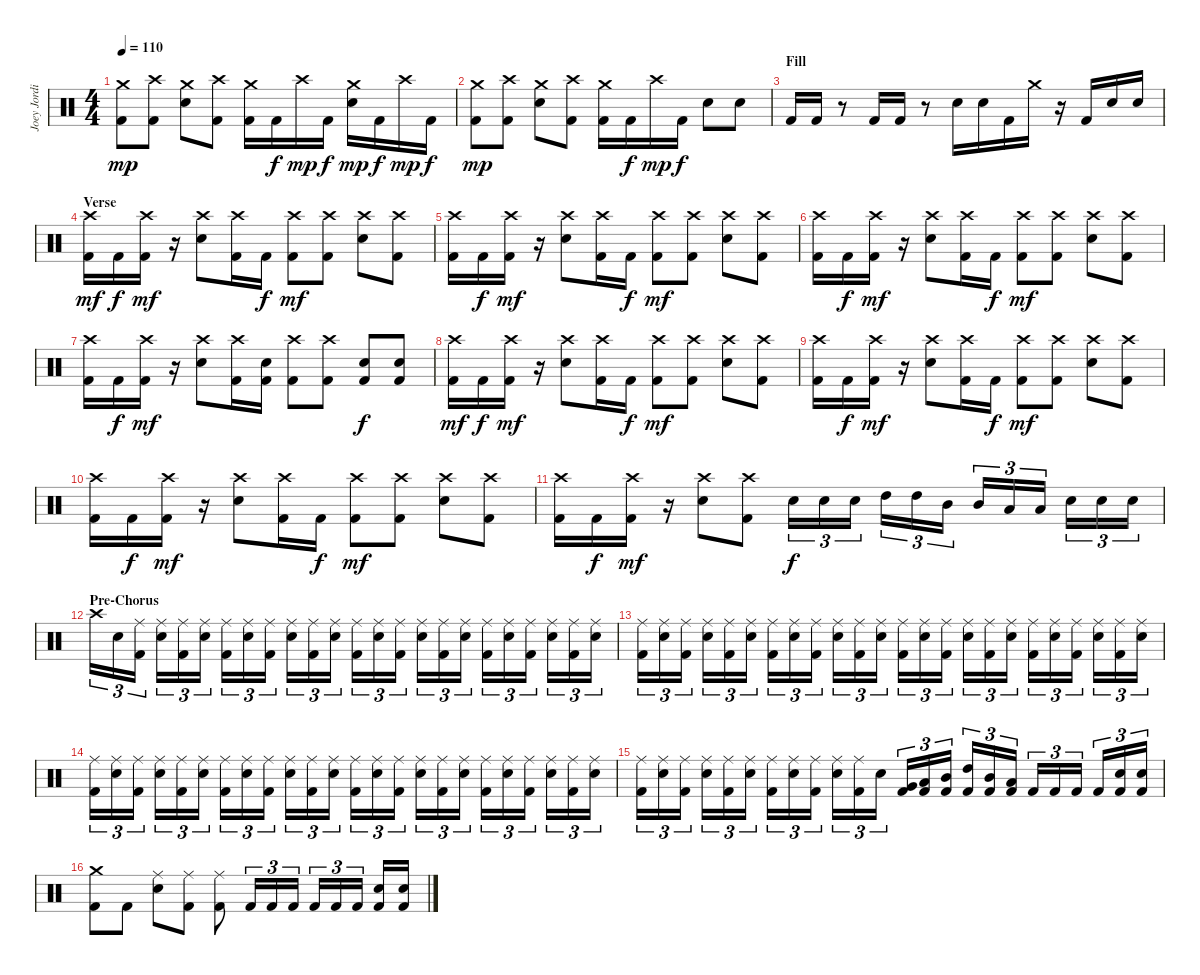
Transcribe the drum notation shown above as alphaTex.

\track ("Joey Jordison" "Joey Jordi") {instrument percussion}
\staff {score}
\articulation defaults
\ts (4 4)
\tempo 110
\clef neutral
\ks c
("Crash medium (hit)" "Kick (hit) 2").8{dy mp} ("Crash high (hit)" "Kick (hit) 2").8 ("Crash medium (hit)" "Snare (hit) 2").8 ("Crash high (hit)" "Kick (hit) 2").8 ("Crash medium (hit)" "Kick (hit) 2").16 "Kick (hit) 2".16{dy f} "Crash high (hit)".16{dy mp} "Kick (hit) 2".16{dy f} ("Crash medium (hit)" "Snare (hit) 2").16{dy mp} "Kick (hit) 2".16{dy f} "Crash high (hit)".16{dy mp} "Kick (hit) 2".16{dy f} |
("Crash medium (hit)" "Kick (hit) 2").8{dy mp} ("Crash high (hit)" "Kick (hit) 2").8 ("Crash medium (hit)" "Snare (hit) 2").8 ("Crash high (hit)" "Kick (hit) 2").8 ("Crash medium (hit)" "Kick (hit) 2").16 "Kick (hit) 2".16{dy f} "Crash high (hit)".16{dy mp} "Kick (hit) 2".16{dy f} "Snare (hit) 2".8 "Snare (hit) 2".8 |
\section ("" "Fill")
"Kick (hit) 2".16 "Kick (hit) 2".16 r.8 "Kick (hit) 2".16 "Kick (hit) 2".16 r.8 "Snare (hit) 2".16 "Snare (hit) 2".16 "Kick (hit) 2".16 "Crash medium (hit)".16 r.16 "Kick (hit) 2".16 "Snare (hit) 2".16 "Snare (hit) 2".16 |
\section ("" "Verse")
("Crash high (hit)" "Kick (hit) 2").16{dy mf} "Kick (hit) 2".16{dy f} ("Crash high (hit)" "Kick (hit) 2").16{dy mf} r.16 ("Crash high (hit)" "Snare (hit) 2").8 ("Crash high (hit)" "Kick (hit) 2").16 "Kick (hit) 2".16{dy f} ("Crash high (hit)" "Kick (hit) 2").8{dy mf} ("Crash high (hit)" "Kick (hit) 2").8 ("Crash high (hit)" "Snare (hit) 2").8 ("Crash high (hit)" "Kick (hit) 2").8 |
("Crash high (hit)" "Kick (hit) 2").16 "Kick (hit) 2".16{dy f} ("Crash high (hit)" "Kick (hit) 2").16{dy mf} r.16 ("Crash high (hit)" "Snare (hit) 2").8 ("Crash high (hit)" "Kick (hit) 2").16 "Kick (hit) 2".16{dy f} ("Crash high (hit)" "Kick (hit) 2").8{dy mf} ("Crash high (hit)" "Kick (hit) 2").8 ("Crash high (hit)" "Snare (hit) 2").8 ("Crash high (hit)" "Kick (hit) 2").8 |
("Crash high (hit)" "Kick (hit) 2").16 "Kick (hit) 2".16{dy f} ("Crash high (hit)" "Kick (hit) 2").16{dy mf} r.16 ("Crash high (hit)" "Snare (hit) 2").8 ("Crash high (hit)" "Kick (hit) 2").16 "Kick (hit) 2".16{dy f} ("Crash high (hit)" "Kick (hit) 2").8{dy mf} ("Crash high (hit)" "Kick (hit) 2").8 ("Crash high (hit)" "Snare (hit) 2").8 ("Crash high (hit)" "Kick (hit) 2").8 |
("Crash high (hit)" "Kick (hit) 2").16 "Kick (hit) 2".16{dy f} ("Crash high (hit)" "Kick (hit) 2").16{dy mf} r.16 ("Crash high (hit)" "Snare (hit) 2").8 ("Crash high (hit)" "Kick (hit) 2").16 ("Snare (hit) 2" "Kick (hit) 2").16 ("Crash high (hit)" "Kick (hit) 2").8 ("Crash high (hit)" "Kick (hit) 2").8 ("Snare (hit) 2" "Kick (hit) 2").8{dy f} ("Snare (hit) 2" "Kick (hit) 2").8 |
("Crash high (hit)" "Kick (hit) 2").16{dy mf} "Kick (hit) 2".16{dy f} ("Crash high (hit)" "Kick (hit) 2").16{dy mf} r.16 ("Crash high (hit)" "Snare (hit) 2").8 ("Crash high (hit)" "Kick (hit) 2").16 "Kick (hit) 2".16{dy f} ("Crash high (hit)" "Kick (hit) 2").8{dy mf} ("Crash high (hit)" "Kick (hit) 2").8 ("Crash high (hit)" "Snare (hit) 2").8 ("Crash high (hit)" "Kick (hit) 2").8 |
("Crash high (hit)" "Kick (hit) 2").16 "Kick (hit) 2".16{dy f} ("Crash high (hit)" "Kick (hit) 2").16{dy mf} r.16 ("Crash high (hit)" "Snare (hit) 2").8 ("Crash high (hit)" "Kick (hit) 2").16 "Kick (hit) 2".16{dy f} ("Crash high (hit)" "Kick (hit) 2").8{dy mf} ("Crash high (hit)" "Kick (hit) 2").8 ("Crash high (hit)" "Snare (hit) 2").8 ("Crash high (hit)" "Kick (hit) 2").8 |
("Crash high (hit)" "Kick (hit) 2").16 "Kick (hit) 2".16{dy f} ("Crash high (hit)" "Kick (hit) 2").16{dy mf} r.16 ("Crash high (hit)" "Snare (hit) 2").8 ("Crash high (hit)" "Kick (hit) 2").16 "Kick (hit) 2".16{dy f} ("Crash high (hit)" "Kick (hit) 2").8{dy mf} ("Crash high (hit)" "Kick (hit) 2").8 ("Crash high (hit)" "Snare (hit) 2").8 ("Crash high (hit)" "Kick (hit) 2").8 |
("Crash high (hit)" "Kick (hit) 2").16 "Kick (hit) 2".16{dy f} ("Crash high (hit)" "Kick (hit) 2").16{dy mf} r.16 ("Crash high (hit)" "Snare (hit) 2").8 ("Crash high (hit)" "Kick (hit) 2").8 "Snare (hit) 2".16{tu (3 2) dy f} "Snare (hit) 2".16{tu (3 2)} "Snare (hit) 2".16{tu (3 2)} "High Tom (hit)".16{tu (3 2)} "High Tom (hit)".16{tu (3 2)} "Mid Tom (hit)".16{tu (3 2)} "Mid Tom (hit)".16{tu (3 2)} "Low Tom (hit)".16{tu (3 2)} "Low Tom (hit)".16{tu (3 2)} "Snare (hit) 2".16{tu (3 2)} "Snare (hit) 2".16{tu (3 2)} "Snare (hit) 2".16{tu (3 2)} |
\section ("" "Pre-Chorus")
"Crash high (hit)".16{tu (3 2)} "Snare (hit) 2".16{tu (3 2)} ("Ride (middle)" "Kick (hit) 2").16{tu (3 2)} ("Ride (middle)" "Snare (hit) 2").16{tu (3 2)} ("Ride (middle)" "Kick (hit) 2").16{tu (3 2)} ("Ride (middle)" "Snare (hit) 2").16{tu (3 2)} ("Ride (middle)" "Kick (hit) 2").16{tu (3 2)} ("Ride (middle)" "Snare (hit) 2").16{tu (3 2)} ("Ride (middle)" "Kick (hit) 2").16{tu (3 2)} ("Ride (middle)" "Snare (hit) 2").16{tu (3 2)} ("Ride (middle)" "Kick (hit) 2").16{tu (3 2)} ("Ride (middle)" "Snare (hit) 2").16{tu (3 2)} ("Ride (middle)" "Kick (hit) 2").16{tu (3 2)} ("Ride (middle)" "Snare (hit) 2").16{tu (3 2)} ("Ride (middle)" "Kick (hit) 2").16{tu (3 2)} ("Ride (middle)" "Snare (hit) 2").16{tu (3 2)} ("Ride (middle)" "Kick (hit) 2").16{tu (3 2)} ("Ride (middle)" "Snare (hit) 2").16{tu (3 2)} ("Ride (middle)" "Kick (hit) 2").16{tu (3 2)} ("Ride (middle)" "Snare (hit) 2").16{tu (3 2)} ("Ride (middle)" "Kick (hit) 2").16{tu (3 2)} ("Ride (middle)" "Snare (hit) 2").16{tu (3 2)} ("Ride (middle)" "Kick (hit) 2").16{tu (3 2)} ("Ride (middle)" "Snare (hit) 2").16{tu (3 2)} |
("Ride (middle)" "Kick (hit) 2").16{tu (3 2)} ("Ride (middle)" "Snare (hit) 2").16{tu (3 2)} ("Ride (middle)" "Kick (hit) 2").16{tu (3 2)} ("Ride (middle)" "Snare (hit) 2").16{tu (3 2)} ("Ride (middle)" "Kick (hit) 2").16{tu (3 2)} ("Ride (middle)" "Snare (hit) 2").16{tu (3 2)} ("Ride (middle)" "Kick (hit) 2").16{tu (3 2)} ("Ride (middle)" "Snare (hit) 2").16{tu (3 2)} ("Ride (middle)" "Kick (hit) 2").16{tu (3 2)} ("Ride (middle)" "Snare (hit) 2").16{tu (3 2)} ("Ride (middle)" "Kick (hit) 2").16{tu (3 2)} ("Ride (middle)" "Snare (hit) 2").16{tu (3 2)} ("Ride (middle)" "Kick (hit) 2").16{tu (3 2)} ("Ride (middle)" "Snare (hit) 2").16{tu (3 2)} ("Ride (middle)" "Kick (hit) 2").16{tu (3 2)} ("Ride (middle)" "Snare (hit) 2").16{tu (3 2)} ("Ride (middle)" "Kick (hit) 2").16{tu (3 2)} ("Ride (middle)" "Snare (hit) 2").16{tu (3 2)} ("Ride (middle)" "Kick (hit) 2").16{tu (3 2)} ("Ride (middle)" "Snare (hit) 2").16{tu (3 2)} ("Ride (middle)" "Kick (hit) 2").16{tu (3 2)} ("Ride (middle)" "Snare (hit) 2").16{tu (3 2)} ("Ride (middle)" "Kick (hit) 2").16{tu (3 2)} ("Ride (middle)" "Snare (hit) 2").16{tu (3 2)} |
("Ride (middle)" "Kick (hit) 2").16{tu (3 2)} ("Ride (middle)" "Snare (hit) 2").16{tu (3 2)} ("Ride (middle)" "Kick (hit) 2").16{tu (3 2)} ("Ride (middle)" "Snare (hit) 2").16{tu (3 2)} ("Ride (middle)" "Kick (hit) 2").16{tu (3 2)} ("Ride (middle)" "Snare (hit) 2").16{tu (3 2)} ("Ride (middle)" "Kick (hit) 2").16{tu (3 2)} ("Ride (middle)" "Snare (hit) 2").16{tu (3 2)} ("Ride (middle)" "Kick (hit) 2").16{tu (3 2)} ("Ride (middle)" "Snare (hit) 2").16{tu (3 2)} ("Ride (middle)" "Kick (hit) 2").16{tu (3 2)} ("Ride (middle)" "Snare (hit) 2").16{tu (3 2)} ("Ride (middle)" "Kick (hit) 2").16{tu (3 2)} ("Ride (middle)" "Snare (hit) 2").16{tu (3 2)} ("Ride (middle)" "Kick (hit) 2").16{tu (3 2)} ("Ride (middle)" "Snare (hit) 2").16{tu (3 2)} ("Ride (middle)" "Kick (hit) 2").16{tu (3 2)} ("Ride (middle)" "Snare (hit) 2").16{tu (3 2)} ("Ride (middle)" "Kick (hit) 2").16{tu (3 2)} ("Ride (middle)" "Snare (hit) 2").16{tu (3 2)} ("Ride (middle)" "Kick (hit) 2").16{tu (3 2)} ("Ride (middle)" "Snare (hit) 2").16{tu (3 2)} ("Ride (middle)" "Kick (hit) 2").16{tu (3 2)} ("Ride (middle)" "Snare (hit) 2").16{tu (3 2)} |
("Ride (middle)" "Kick (hit) 2").16{tu (3 2)} ("Ride (middle)" "Snare (hit) 2").16{tu (3 2)} ("Ride (middle)" "Kick (hit) 2").16{tu (3 2)} ("Ride (middle)" "Snare (hit) 2").16{tu (3 2)} ("Ride (middle)" "Kick (hit) 2").16{tu (3 2)} ("Ride (middle)" "Snare (hit) 2").16{tu (3 2)} ("Ride (middle)" "Kick (hit) 2").16{tu (3 2)} ("Ride (middle)" "Snare (hit) 2").16{tu (3 2)} ("Ride (middle)" "Kick (hit) 2").16{tu (3 2)} ("Ride (middle)" "Snare (hit) 2").16{tu (3 2)} ("Ride (middle)" "Kick (hit) 2").16{tu (3 2)} "Snare (hit) 2".16{tu (3 2)} ("Very Low Tom (hit)" "Kick (hit) 2").16{tu (3 2)} ("Low Tom (hit)" "Kick (hit) 2").16{tu (3 2)} ("Mid Tom (hit)" "Kick (hit) 2").16{tu (3 2)} ("High Tom (hit)" "Kick (hit) 2").16{tu (3 2)} ("Mid Tom (hit)" "Kick (hit) 2").16{tu (3 2)} ("Low Tom (hit)" "Kick (hit) 2").16{tu (3 2)} "Kick (hit) 2".16{tu (3 2)} "Kick (hit) 2".16{tu (3 2)} "Kick (hit) 2".16{tu (3 2)} "Kick (hit) 2".16{tu (3 2)} ("Snare (hit) 2" "Kick (hit) 2").16{tu (3 2)} ("Snare (hit) 2" "Kick (hit) 2").16{tu (3 2)} |
("Crash medium (hit)" "Kick (hit) 2").8 "Kick (hit) 2".8 ("Ride (middle)" "Snare (hit) 2").8 ("Ride (middle)" "Kick (hit) 2").8 ("Ride (middle)" "Kick (hit) 2").8 "Kick (hit) 2".16{tu (3 2)} "Kick (hit) 2".16{tu (3 2)} "Kick (hit) 2".16{tu (3 2)} "Kick (hit) 2".16{tu (3 2)} "Kick (hit) 2".16{tu (3 2)} "Kick (hit) 2".16{tu (3 2)} ("Snare (hit) 2" "Kick (hit) 2").16 ("Snare (hit) 2" "Kick (hit) 2").16
